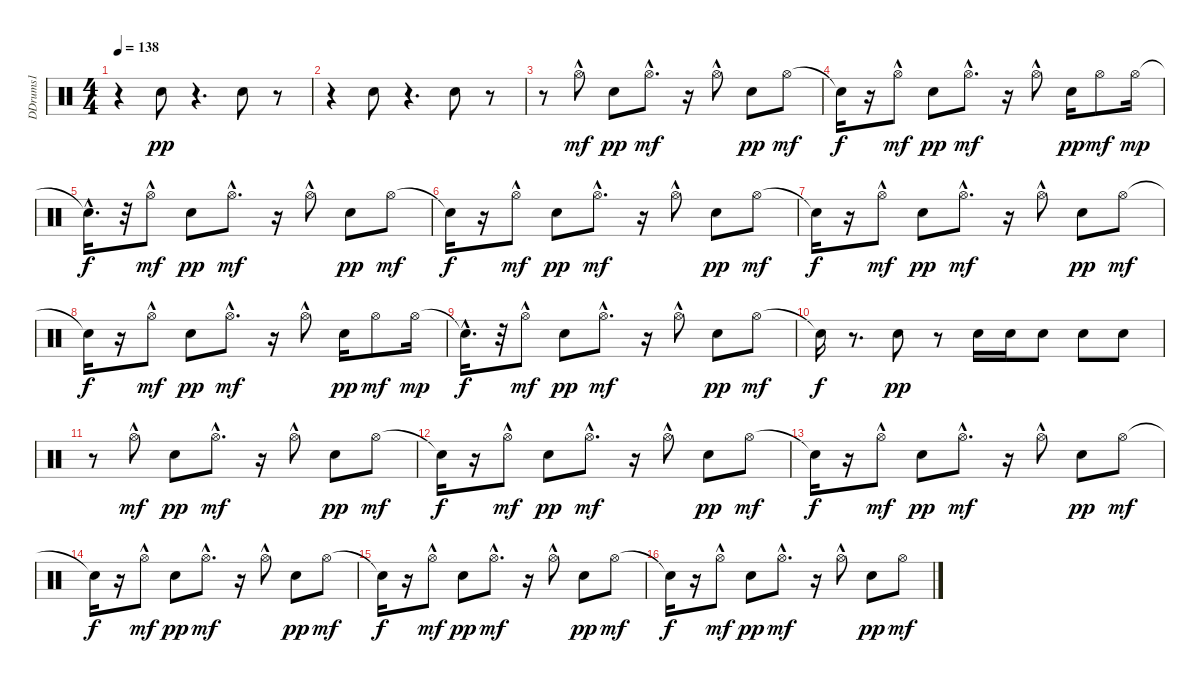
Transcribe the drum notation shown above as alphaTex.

\track ("DDrums1" "DDrums1") {instrument percussion}
\staff {score}
\articulation defaults
\ts (4 4)
\tempo 138
\clef neutral
\ks c
r.4{dy pp} "Electric Snare (hit)".8 r.4{d} "Electric Snare (hit)".8 r.8 |
r.4 "Electric Snare (hit)".8 r.4{d} "Electric Snare (hit)".8 r.8 |
r.8 "Hi-Hat (open)"{hac}.8{dy mf} "Electric Snare (hit)".8{dy pp} "Hi-Hat (open)"{hac}.8{d dy mf} r.16 "Hi-Hat (open)"{hac}.8 "Electric Snare (hit)".8{dy pp} "Hi-Hat (open)".8{dy mf} |
"Snare (hit)"{t}.16{dy f} r.16 "Hi-Hat (open)"{hac}.8{dy mf} "Electric Snare (hit)".8{dy pp} "Hi-Hat (open)"{hac}.8{d dy mf} r.16 "Hi-Hat (open)"{hac}.8 "Electric Snare (hit)".16{dy pp} "Hi-Hat (open)".8{dy mf} "Hi-Hat (open)".16{dy mp} |
"Snare (hit)"{hac t}.16{d dy f} r.32 "Hi-Hat (open)"{hac}.8{dy mf} "Electric Snare (hit)".8{dy pp} "Hi-Hat (open)"{hac}.8{d dy mf} r.16 "Hi-Hat (open)"{hac}.8 "Electric Snare (hit)".8{dy pp} "Hi-Hat (open)".8{dy mf} |
"Snare (hit)"{t}.16{dy f} r.16 "Hi-Hat (open)"{hac}.8{dy mf} "Electric Snare (hit)".8{dy pp} "Hi-Hat (open)"{hac}.8{d dy mf} r.16 "Hi-Hat (open)"{hac}.8 "Electric Snare (hit)".8{dy pp} "Hi-Hat (open)".8{dy mf} |
"Snare (hit)"{t}.16{dy f} r.16 "Hi-Hat (open)"{hac}.8{dy mf} "Electric Snare (hit)".8{dy pp} "Hi-Hat (open)"{hac}.8{d dy mf} r.16 "Hi-Hat (open)"{hac}.8 "Electric Snare (hit)".8{dy pp} "Hi-Hat (open)".8{dy mf} |
"Snare (hit)"{t}.16{dy f} r.16 "Hi-Hat (open)"{hac}.8{dy mf} "Electric Snare (hit)".8{dy pp} "Hi-Hat (open)"{hac}.8{d dy mf} r.16 "Hi-Hat (open)"{hac}.8 "Electric Snare (hit)".16{dy pp} "Hi-Hat (open)".8{dy mf} "Hi-Hat (open)".16{dy mp} |
"Snare (hit)"{hac t}.16{d dy f} r.32 "Hi-Hat (open)"{hac}.8{dy mf} "Electric Snare (hit)".8{dy pp} "Hi-Hat (open)"{hac}.8{d dy mf} r.16 "Hi-Hat (open)"{hac}.8 "Electric Snare (hit)".8{dy pp} "Hi-Hat (open)".8{dy mf} |
"Snare (hit)"{t}.16{dy f} r.8{d} "Electric Snare (hit)".8{dy pp} r.8 "Electric Snare (hit)".16 "Electric Snare (hit)".16 "Electric Snare (hit)".8 "Electric Snare (hit)".8 "Electric Snare (hit)".8 |
r.8 "Hi-Hat (open)"{hac}.8{dy mf} "Electric Snare (hit)".8{dy pp} "Hi-Hat (open)"{hac}.8{d dy mf} r.16 "Hi-Hat (open)"{hac}.8 "Electric Snare (hit)".8{dy pp} "Hi-Hat (open)".8{dy mf} |
"Snare (hit)"{t}.16{dy f} r.16 "Hi-Hat (open)"{hac}.8{dy mf} "Electric Snare (hit)".8{dy pp} "Hi-Hat (open)"{hac}.8{d dy mf} r.16 "Hi-Hat (open)"{hac}.8 "Electric Snare (hit)".8{dy pp} "Hi-Hat (open)".8{dy mf} |
"Snare (hit)"{t}.16{dy f} r.16 "Hi-Hat (open)"{hac}.8{dy mf} "Electric Snare (hit)".8{dy pp} "Hi-Hat (open)"{hac}.8{d dy mf} r.16 "Hi-Hat (open)"{hac}.8 "Electric Snare (hit)".8{dy pp} "Hi-Hat (open)".8{dy mf} |
"Snare (hit)"{t}.16{dy f} r.16 "Hi-Hat (open)"{hac}.8{dy mf} "Electric Snare (hit)".8{dy pp} "Hi-Hat (open)"{hac}.8{d dy mf} r.16 "Hi-Hat (open)"{hac}.8 "Electric Snare (hit)".8{dy pp} "Hi-Hat (open)".8{dy mf} |
"Snare (hit)"{t}.16{dy f} r.16 "Hi-Hat (open)"{hac}.8{dy mf} "Electric Snare (hit)".8{dy pp} "Hi-Hat (open)"{hac}.8{d dy mf} r.16 "Hi-Hat (open)"{hac}.8 "Electric Snare (hit)".8{dy pp} "Hi-Hat (open)".8{dy mf} |
"Snare (hit)"{t}.16{dy f} r.16 "Hi-Hat (open)"{hac}.8{dy mf} "Electric Snare (hit)".8{dy pp} "Hi-Hat (open)"{hac}.8{d dy mf} r.16 "Hi-Hat (open)"{hac}.8 "Electric Snare (hit)".8{dy pp} "Hi-Hat (open)".8{dy mf}
